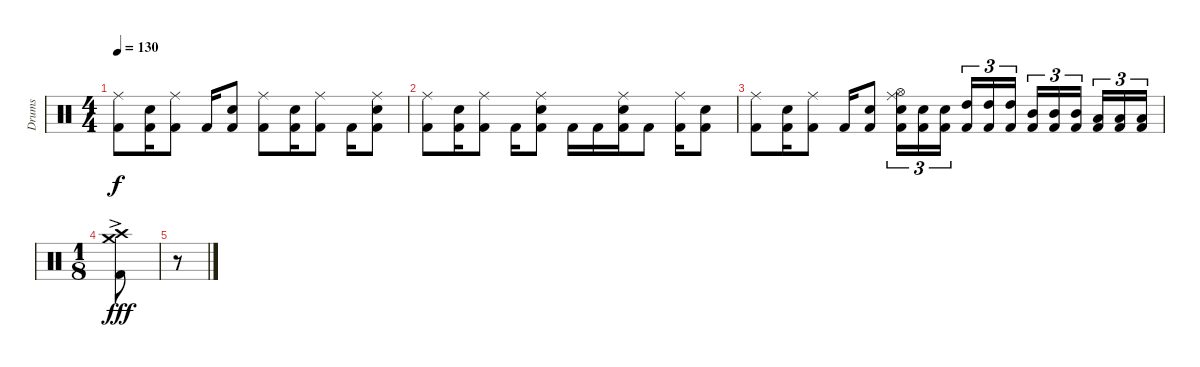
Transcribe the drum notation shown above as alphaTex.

\track ("Drums" "Drums") {instrument percussion}
\staff {score}
\articulation defaults
\ts (4 4)
\tempo 130
\clef neutral
\ks c
("Ride (middle)" "Kick (hit) 2").8{dy f} ("Snare (hit) 2" "Kick (hit) 2").16 ("Ride (middle)" "Kick (hit) 2").8 "Kick (hit) 2".16 ("Snare (hit) 2" "Kick (hit) 2").8 ("Ride (middle)" "Kick (hit) 2").8 ("Snare (hit) 2" "Kick (hit) 2").16 ("Ride (middle)" "Kick (hit) 2").8 "Kick (hit) 2".16 ("Ride (middle)" "Snare (hit) 2" "Kick (hit) 2").8 |
("Ride (middle)" "Kick (hit) 2").8 ("Snare (hit) 2" "Kick (hit) 2").16 ("Ride (middle)" "Kick (hit) 2").8 "Kick (hit) 2".16 ("Ride (middle)" "Snare (hit) 2" "Kick (hit) 2").8 "Kick (hit) 2".16 "Kick (hit) 2".16 ("Ride (middle)" "Snare (hit) 2" "Kick (hit) 2").16 "Kick (hit) 2".8 ("Ride (middle)" "Kick (hit) 2").16 ("Snare (hit) 2" "Kick (hit) 2").8 |
("Ride (middle)" "Kick (hit) 2").8 ("Snare (hit) 2" "Kick (hit) 2").16 ("Ride (middle)" "Kick (hit) 2").8 "Kick (hit) 2".16 ("Snare (hit) 2" "Kick (hit) 2").8 ("Hi-Hat (open)" "Ride (middle)" "Snare (hit) 2" "Kick (hit) 2").16{tu (3 2)} ("Snare (hit) 2" "Kick (hit) 2").16{tu (3 2)} ("Snare (hit) 2" "Kick (hit) 2").16{tu (3 2)} ("High Tom (hit)" "Kick (hit) 2").16{tu (3 2)} ("High Tom (hit)" "Kick (hit) 2").16{tu (3 2)} ("High Tom (hit)" "Kick (hit) 2").16{tu (3 2)} ("Mid Tom (hit)" "Kick (hit) 2").16{tu (3 2)} ("Mid Tom (hit)" "Kick (hit) 2").16{tu (3 2)} ("Mid Tom (hit)" "Kick (hit) 2").16{tu (3 2)} ("Low Tom (hit)" "Kick (hit) 2").16{tu (3 2)} ("Low Tom (hit)" "Kick (hit) 2").16{tu (3 2)} ("Low Tom (hit)" "Kick (hit) 2").16{tu (3 2)} |
\ts (1 8)
("Crash high (hit)"{ac} "Crash medium (hit)"{ac} "Kick (hit) 2"{ac}).8{dy fff} |
r.8
